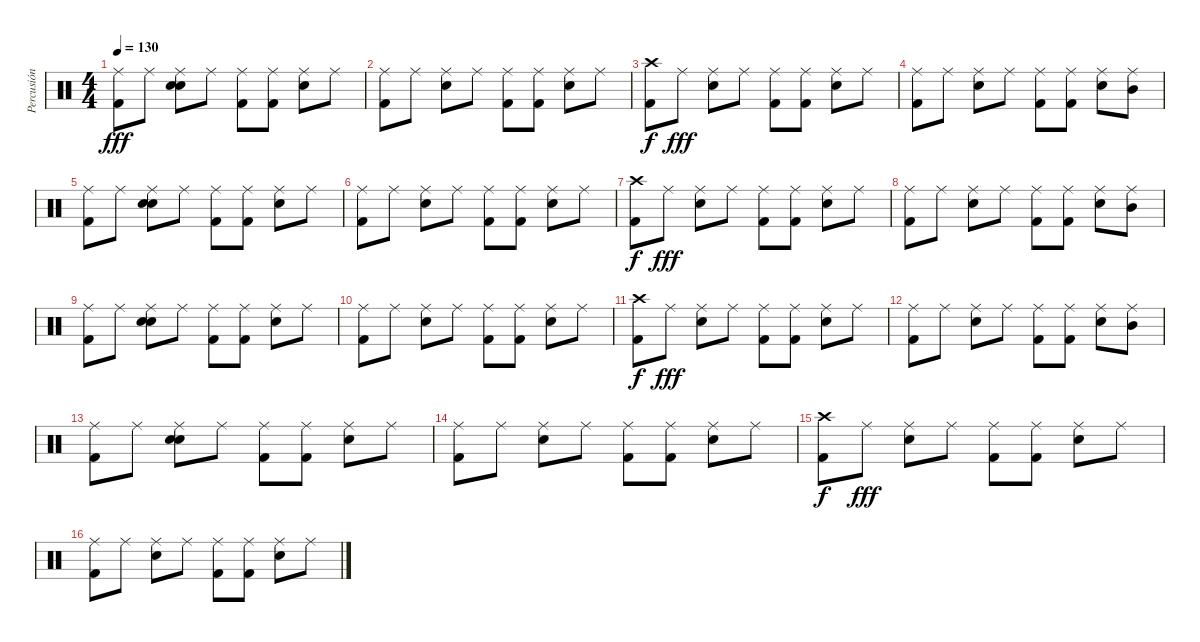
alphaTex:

\track ("Percusión" "Percusión") {instrument percussion}
\staff {score}
\articulation defaults
\ts (4 4)
\tempo 130
\clef neutral
\ks c
("Ride (middle)" "Kick (hit) 2").8{dy fff balance 8} "Ride (middle)".8 ("Ride (middle)" "Electric Snare (hit)" "Snare (hit)").8 "Ride (middle)".8 ("Ride (middle)" "Kick (hit) 2").8 ("Ride (middle)" "Kick (hit) 2").8 ("Ride (middle)" "Electric Snare (hit)").8 "Ride (middle)".8 |
("Ride (middle)" "Kick (hit) 2").8 "Ride (middle)".8 ("Ride (middle)" "Electric Snare (hit)").8 "Ride (middle)".8 ("Ride (middle)" "Kick (hit) 2").8 ("Ride (middle)" "Kick (hit) 2").8 ("Ride (middle)" "Electric Snare (hit)").8 "Ride (middle)".8 |
("Kick (hit) 2" "Crash high (hit)").8{dy f} "Ride (middle)".8{dy fff} ("Ride (middle)" "Electric Snare (hit)").8 "Ride (middle)".8 ("Ride (middle)" "Kick (hit) 2").8 ("Ride (middle)" "Kick (hit) 2").8 ("Ride (middle)" "Electric Snare (hit)").8 "Ride (middle)".8 |
("Ride (middle)" "Kick (hit) 2").8 "Ride (middle)".8 ("Ride (middle)" "Electric Snare (hit)").8 "Ride (middle)".8 ("Ride (middle)" "Kick (hit) 2").8 ("Ride (middle)" "Kick (hit) 2").8 ("Ride (middle)" "Electric Snare (hit)").8 ("Ride (middle)" "Mid Tom (hit)").8{balance 16} |
("Ride (middle)" "Kick (hit) 2").8{balance 8} "Ride (middle)".8 ("Ride (middle)" "Electric Snare (hit)" "Snare (hit)").8 "Ride (middle)".8 ("Ride (middle)" "Kick (hit) 2").8 ("Ride (middle)" "Kick (hit) 2").8 ("Ride (middle)" "Electric Snare (hit)").8 "Ride (middle)".8 |
("Ride (middle)" "Kick (hit) 2").8 "Ride (middle)".8 ("Ride (middle)" "Electric Snare (hit)").8 "Ride (middle)".8 ("Ride (middle)" "Kick (hit) 2").8 ("Ride (middle)" "Kick (hit) 2").8 ("Ride (middle)" "Electric Snare (hit)").8 "Ride (middle)".8 |
("Kick (hit) 2" "Crash high (hit)").8{dy f} "Ride (middle)".8{dy fff} ("Ride (middle)" "Electric Snare (hit)").8 "Ride (middle)".8 ("Ride (middle)" "Kick (hit) 2").8 ("Ride (middle)" "Kick (hit) 2").8 ("Ride (middle)" "Electric Snare (hit)").8 "Ride (middle)".8 |
("Ride (middle)" "Kick (hit) 2").8 "Ride (middle)".8 ("Ride (middle)" "Electric Snare (hit)").8 "Ride (middle)".8 ("Ride (middle)" "Kick (hit) 2").8 ("Ride (middle)" "Kick (hit) 2").8 ("Ride (middle)" "Electric Snare (hit)").8 ("Ride (middle)" "Mid Tom (hit)").8{balance 16} |
("Ride (middle)" "Kick (hit) 2").8{balance 8} "Ride (middle)".8 ("Ride (middle)" "Electric Snare (hit)" "Snare (hit)").8 "Ride (middle)".8 ("Ride (middle)" "Kick (hit) 2").8 ("Ride (middle)" "Kick (hit) 2").8 ("Ride (middle)" "Electric Snare (hit)").8 "Ride (middle)".8 |
("Ride (middle)" "Kick (hit) 2").8 "Ride (middle)".8 ("Ride (middle)" "Electric Snare (hit)").8 "Ride (middle)".8 ("Ride (middle)" "Kick (hit) 2").8 ("Ride (middle)" "Kick (hit) 2").8 ("Ride (middle)" "Electric Snare (hit)").8 "Ride (middle)".8 |
("Kick (hit) 2" "Crash high (hit)").8{dy f} "Ride (middle)".8{dy fff} ("Ride (middle)" "Electric Snare (hit)").8 "Ride (middle)".8 ("Ride (middle)" "Kick (hit) 2").8 ("Ride (middle)" "Kick (hit) 2").8 ("Ride (middle)" "Electric Snare (hit)").8 "Ride (middle)".8 |
("Ride (middle)" "Kick (hit) 2").8 "Ride (middle)".8 ("Ride (middle)" "Electric Snare (hit)").8 "Ride (middle)".8 ("Ride (middle)" "Kick (hit) 2").8 ("Ride (middle)" "Kick (hit) 2").8 ("Ride (middle)" "Electric Snare (hit)").8 ("Ride (middle)" "Mid Tom (hit)").8{balance 16} |
("Ride (middle)" "Kick (hit) 2").8{balance 8} "Ride (middle)".8 ("Ride (middle)" "Electric Snare (hit)" "Snare (hit)").8 "Ride (middle)".8 ("Ride (middle)" "Kick (hit) 2").8 ("Ride (middle)" "Kick (hit) 2").8 ("Ride (middle)" "Electric Snare (hit)").8 "Ride (middle)".8 |
("Ride (middle)" "Kick (hit) 2").8 "Ride (middle)".8 ("Ride (middle)" "Electric Snare (hit)").8 "Ride (middle)".8 ("Ride (middle)" "Kick (hit) 2").8 ("Ride (middle)" "Kick (hit) 2").8 ("Ride (middle)" "Electric Snare (hit)").8 "Ride (middle)".8 |
("Kick (hit) 2" "Crash high (hit)").8{dy f} "Ride (middle)".8{dy fff} ("Ride (middle)" "Electric Snare (hit)").8 "Ride (middle)".8 ("Ride (middle)" "Kick (hit) 2").8 ("Ride (middle)" "Kick (hit) 2").8 ("Ride (middle)" "Electric Snare (hit)").8 "Ride (middle)".8 |
("Ride (middle)" "Kick (hit) 2").8 "Ride (middle)".8 ("Ride (middle)" "Electric Snare (hit)").8 "Ride (middle)".8 ("Ride (middle)" "Kick (hit) 2").8 ("Ride (middle)" "Kick (hit) 2").8 ("Ride (middle)" "Electric Snare (hit)").8 "Ride (middle)".8
